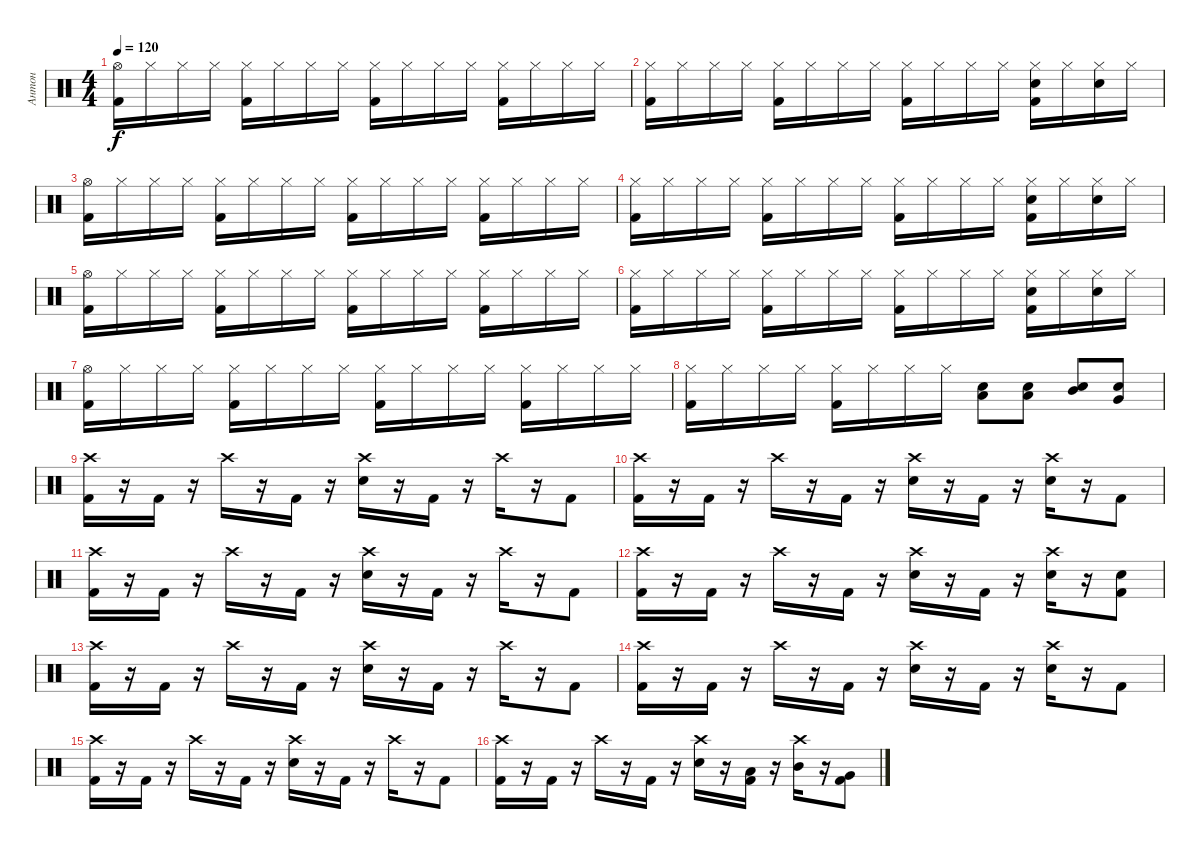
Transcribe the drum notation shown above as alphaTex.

\track ("Антон" "Антон") {instrument percussion}
\staff {score}
\articulation defaults
\ts (4 4)
\tempo 120
\clef neutral
\ks c
("Hi-Hat (open)" "Kick (hit) 2").16{dy f} "Hi-Hat (closed)".16 "Hi-Hat (closed)".16 "Hi-Hat (closed)".16 ("Hi-Hat (closed)" "Kick (hit) 2").16 "Hi-Hat (closed)".16 "Hi-Hat (closed)".16 "Hi-Hat (closed)".16 ("Hi-Hat (closed)" "Kick (hit) 2").16 "Hi-Hat (closed)".16 "Hi-Hat (closed)".16 "Hi-Hat (closed)".16 ("Hi-Hat (closed)" "Kick (hit) 2").16 "Hi-Hat (closed)".16 "Hi-Hat (closed)".16 "Hi-Hat (closed)".16 |
("Hi-Hat (closed)" "Kick (hit) 2").16 "Hi-Hat (closed)".16 "Hi-Hat (closed)".16 "Hi-Hat (closed)".16 ("Hi-Hat (closed)" "Kick (hit) 2").16 "Hi-Hat (closed)".16 "Hi-Hat (closed)".16 "Hi-Hat (closed)".16 ("Hi-Hat (closed)" "Kick (hit) 2").16 "Hi-Hat (closed)".16 "Hi-Hat (closed)".16 "Hi-Hat (closed)".16 ("Hi-Hat (closed)" "Electric Snare (hit)" "Kick (hit) 2").16 "Hi-Hat (closed)".16 ("Hi-Hat (closed)" "Electric Snare (hit)").16 "Hi-Hat (closed)".16 |
("Hi-Hat (open)" "Kick (hit) 2").16 "Hi-Hat (closed)".16 "Hi-Hat (closed)".16 "Hi-Hat (closed)".16 ("Hi-Hat (closed)" "Kick (hit) 2").16 "Hi-Hat (closed)".16 "Hi-Hat (closed)".16 "Hi-Hat (closed)".16 ("Hi-Hat (closed)" "Kick (hit) 2").16 "Hi-Hat (closed)".16 "Hi-Hat (closed)".16 "Hi-Hat (closed)".16 ("Hi-Hat (closed)" "Kick (hit) 2").16 "Hi-Hat (closed)".16 "Hi-Hat (closed)".16 "Hi-Hat (closed)".16 |
("Hi-Hat (closed)" "Kick (hit) 2").16 "Hi-Hat (closed)".16 "Hi-Hat (closed)".16 "Hi-Hat (closed)".16 ("Hi-Hat (closed)" "Kick (hit) 2").16 "Hi-Hat (closed)".16 "Hi-Hat (closed)".16 "Hi-Hat (closed)".16 ("Hi-Hat (closed)" "Kick (hit) 2").16 "Hi-Hat (closed)".16 "Hi-Hat (closed)".16 "Hi-Hat (closed)".16 ("Hi-Hat (closed)" "Electric Snare (hit)" "Kick (hit) 2").16 "Hi-Hat (closed)".16 ("Hi-Hat (closed)" "Electric Snare (hit)").16 "Hi-Hat (closed)".16 |
("Hi-Hat (open)" "Kick (hit) 2").16 "Hi-Hat (closed)".16 "Hi-Hat (closed)".16 "Hi-Hat (closed)".16 ("Hi-Hat (closed)" "Kick (hit) 2").16 "Hi-Hat (closed)".16 "Hi-Hat (closed)".16 "Hi-Hat (closed)".16 ("Hi-Hat (closed)" "Kick (hit) 2").16 "Hi-Hat (closed)".16 "Hi-Hat (closed)".16 "Hi-Hat (closed)".16 ("Hi-Hat (closed)" "Kick (hit) 2").16 "Hi-Hat (closed)".16 "Hi-Hat (closed)".16 "Hi-Hat (closed)".16 |
("Hi-Hat (closed)" "Kick (hit) 2").16 "Hi-Hat (closed)".16 "Hi-Hat (closed)".16 "Hi-Hat (closed)".16 ("Hi-Hat (closed)" "Kick (hit) 2").16 "Hi-Hat (closed)".16 "Hi-Hat (closed)".16 "Hi-Hat (closed)".16 ("Hi-Hat (closed)" "Kick (hit) 2").16 "Hi-Hat (closed)".16 "Hi-Hat (closed)".16 "Hi-Hat (closed)".16 ("Hi-Hat (closed)" "Electric Snare (hit)" "Kick (hit) 2").16 "Hi-Hat (closed)".16 ("Hi-Hat (closed)" "Electric Snare (hit)").16 "Hi-Hat (closed)".16 |
("Hi-Hat (open)" "Kick (hit) 2").16 "Hi-Hat (closed)".16 "Hi-Hat (closed)".16 "Hi-Hat (closed)".16 ("Hi-Hat (closed)" "Kick (hit) 2").16 "Hi-Hat (closed)".16 "Hi-Hat (closed)".16 "Hi-Hat (closed)".16 ("Hi-Hat (closed)" "Kick (hit) 2").16 "Hi-Hat (closed)".16 "Hi-Hat (closed)".16 "Hi-Hat (closed)".16 ("Hi-Hat (closed)" "Kick (hit) 2").16 "Hi-Hat (closed)".16 "Hi-Hat (closed)".16 "Hi-Hat (closed)".16 |
("Hi-Hat (closed)" "Kick (hit) 2").16 "Hi-Hat (closed)".16 "Hi-Hat (closed)".16 "Hi-Hat (closed)".16 ("Hi-Hat (closed)" "Kick (hit) 2").16 "Hi-Hat (closed)".16 "Hi-Hat (closed)".16 "Hi-Hat (closed)".16 ("Low Tom (hit)" "Electric Snare (hit)").8 ("Low Tom (hit)" "Electric Snare (hit)").8 ("Mid Tom (hit)" "Electric Snare (hit)").8 ("Very Low Tom (hit)" "Electric Snare (hit)").8 |
("Crash high (hit)" "Kick (hit) 2").16 r.16 "Kick (hit) 2".16 r.16 "Crash high (hit)".16 r.16 "Kick (hit) 2".16 r.16 ("Crash high (hit)" "Electric Snare (hit)").16 r.16 "Kick (hit) 2".16 r.16 "Crash high (hit)".16 r.16 "Kick (hit) 2".8 |
("Crash high (hit)" "Kick (hit) 2").16 r.16 "Kick (hit) 2".16 r.16 "Crash high (hit)".16 r.16 "Kick (hit) 2".16 r.16 ("Crash high (hit)" "Electric Snare (hit)").16 r.16 "Kick (hit) 2".16 r.16 ("Crash high (hit)" "Electric Snare (hit)").16 r.16 "Kick (hit) 2".8 |
("Crash high (hit)" "Kick (hit) 2").16 r.16 "Kick (hit) 2".16 r.16 "Crash high (hit)".16 r.16 "Kick (hit) 2".16 r.16 ("Crash high (hit)" "Electric Snare (hit)").16 r.16 "Kick (hit) 2".16 r.16 "Crash high (hit)".16 r.16 "Kick (hit) 2".8 |
("Crash high (hit)" "Kick (hit) 2").16 r.16 "Kick (hit) 2".16 r.16 "Crash high (hit)".16 r.16 "Kick (hit) 2".16 r.16 ("Crash high (hit)" "Electric Snare (hit)").16 r.16 "Kick (hit) 2".16 r.16 ("Crash high (hit)" "Electric Snare (hit)").16 r.16 ("Electric Snare (hit)" "Kick (hit) 2").8 |
("Crash high (hit)" "Kick (hit) 2").16 r.16 "Kick (hit) 2".16 r.16 "Crash high (hit)".16 r.16 "Kick (hit) 2".16 r.16 ("Crash high (hit)" "Electric Snare (hit)").16 r.16 "Kick (hit) 2".16 r.16 "Crash high (hit)".16 r.16 "Kick (hit) 2".8 |
("Crash high (hit)" "Kick (hit) 2").16 r.16 "Kick (hit) 2".16 r.16 "Crash high (hit)".16 r.16 "Kick (hit) 2".16 r.16 ("Crash high (hit)" "Electric Snare (hit)").16 r.16 "Kick (hit) 2".16 r.16 ("Crash high (hit)" "Electric Snare (hit)").16 r.16 "Kick (hit) 2".8 |
("Crash high (hit)" "Kick (hit) 2").16 r.16 "Kick (hit) 2".16 r.16 "Crash high (hit)".16 r.16 "Kick (hit) 2".16 r.16 ("Crash high (hit)" "Electric Snare (hit)").16 r.16 "Kick (hit) 2".16 r.16 "Crash high (hit)".16 r.16 "Kick (hit) 2".8 |
("Crash high (hit)" "Kick (hit) 2").16 r.16 "Kick (hit) 2".16 r.16 "Crash high (hit)".16 r.16 "Kick (hit) 2".16 r.16 ("Crash high (hit)" "Electric Snare (hit)").16 r.16 ("Low Tom (hit)" "Kick (hit) 2").16 r.16 ("Crash high (hit)" "Mid Tom (hit)").16 r.16 ("Very Low Tom (hit)" "Kick (hit) 2").8
